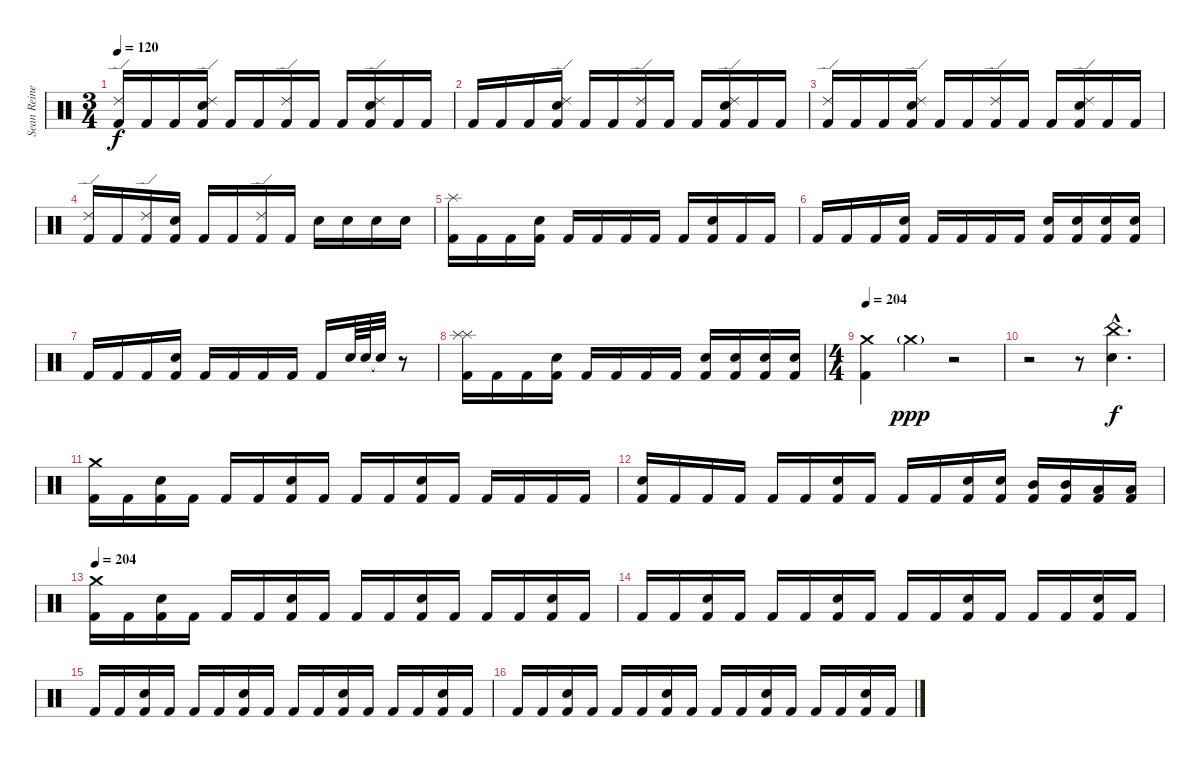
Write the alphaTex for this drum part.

\track ("Sean Reinert" "Sean Reine") {instrument percussion}
\staff {score}
\articulation defaults
\ts (3 4)
\tempo 120
\clef neutral
\ks c
("Ride (edge) 2" "Kick (hit) 2").16{dy f} "Kick (hit) 2".16 "Kick (hit) 2".16 ("Ride (edge) 2" "Snare (hit) 2" "Kick (hit) 2").16 "Kick (hit) 2".16 "Kick (hit) 2".16 ("Ride (edge) 2" "Kick (hit) 2").16 "Kick (hit) 2".16 "Kick (hit) 2".16 ("Ride (edge) 2" "Snare (hit) 2" "Kick (hit) 2").16 "Kick (hit) 2".16 "Kick (hit) 2".16 |
"Kick (hit) 2".16 "Kick (hit) 2".16 "Kick (hit) 2".16 ("Ride (edge) 2" "Snare (hit) 2" "Kick (hit) 2").16 "Kick (hit) 2".16 "Kick (hit) 2".16 ("Ride (edge) 2" "Kick (hit) 2").16 "Kick (hit) 2".16 "Kick (hit) 2".16 ("Ride (edge) 2" "Snare (hit) 2" "Kick (hit) 2").16 "Kick (hit) 2".16 "Kick (hit) 2".16 |
("Ride (edge) 2" "Kick (hit) 2").16 "Kick (hit) 2".16 "Kick (hit) 2".16 ("Ride (edge) 2" "Snare (hit) 2" "Kick (hit) 2").16 "Kick (hit) 2".16 "Kick (hit) 2".16 ("Ride (edge) 2" "Kick (hit) 2").16 "Kick (hit) 2".16 "Kick (hit) 2".16 ("Ride (edge) 2" "Snare (hit) 2" "Kick (hit) 2").16 "Kick (hit) 2".16 "Kick (hit) 2".16 |
("Ride (edge) 2" "Kick (hit) 2").16 "Kick (hit) 2".16 ("Ride (edge) 2" "Kick (hit) 2").16 ("Snare (hit) 2" "Kick (hit) 2").16 "Kick (hit) 2".16 "Kick (hit) 2".16 ("Ride (edge) 2" "Kick (hit) 2").16 "Kick (hit) 2".16 "Snare (hit) 2".16 "Snare (hit) 2".16 "Snare (hit) 2".16 "Snare (hit) 2".16 |
("Splash (hit)" "Kick (hit) 2").16 "Kick (hit) 2".16 "Kick (hit) 2".16 ("Snare (hit) 2" "Kick (hit) 2").16 "Kick (hit) 2".16 "Kick (hit) 2".16 "Kick (hit) 2".16 "Kick (hit) 2".16 "Kick (hit) 2".16 ("Snare (hit) 2" "Kick (hit) 2").16 "Kick (hit) 2".16 "Kick (hit) 2".16 |
"Kick (hit) 2".16 "Kick (hit) 2".16 "Kick (hit) 2".16 ("Snare (hit) 2" "Kick (hit) 2").16 "Kick (hit) 2".16 "Kick (hit) 2".16 "Kick (hit) 2".16 "Kick (hit) 2".16 ("Snare (hit) 2" "Kick (hit) 2").16 ("Snare (hit) 2" "Kick (hit) 2").16 ("Snare (hit) 2" "Kick (hit) 2").16 ("Snare (hit) 2" "Kick (hit) 2").16 |
"Kick (hit) 2".16 "Kick (hit) 2".16 "Kick (hit) 2".16 ("Snare (hit) 2" "Kick (hit) 2").16 "Kick (hit) 2".16 "Kick (hit) 2".16 "Kick (hit) 2".16 "Kick (hit) 2".16 "Kick (hit) 2".16 "Snare (hit) 2".64 "Snare (hit) 2".64 "Snare (hit)"{t}.32 r.8 |
("Splash (hit)" "Splash (hit)" "Kick (hit) 2").16 "Kick (hit) 2".16 "Kick (hit) 2".16 ("Snare (hit) 2" "Kick (hit) 2").16 "Kick (hit) 2".16 "Kick (hit) 2".16 "Kick (hit) 2".16 "Kick (hit) 2".16 ("Snare (hit) 2" "Kick (hit) 2").16 ("Snare (hit) 2" "Kick (hit) 2").16 ("Snare (hit) 2" "Kick (hit) 2").16 ("Snare (hit) 2" "Kick (hit) 2").16 |
\ts (4 4)
\tempo 204
("Crash medium (hit)" "Kick (hit) 2").4 "Crash medium (hit)"{g}.4{dy ppp} r.2 |
r.2 r.8 ("China (hit)"{hac} "Snare (hit) 2"{hac}).4{d dy f} |
("Crash medium (hit)" "Kick (hit) 2").16 "Kick (hit) 2".16 ("Snare (hit) 2" "Kick (hit) 2").16 "Kick (hit) 2".16 "Kick (hit) 2".16 "Kick (hit) 2".16 ("Snare (hit) 2" "Kick (hit) 2").16 "Kick (hit) 2".16 "Kick (hit) 2".16 "Kick (hit) 2".16 ("Snare (hit) 2" "Kick (hit) 2").16 "Kick (hit) 2".16 "Kick (hit) 2".16 "Kick (hit) 2".16 "Kick (hit) 2".16 "Kick (hit) 2".16 |
("Snare (hit) 2" "Kick (hit) 2").16 "Kick (hit) 2".16 "Kick (hit) 2".16 "Kick (hit) 2".16 "Kick (hit) 2".16 "Kick (hit) 2".16 ("Snare (hit) 2" "Kick (hit) 2").16 "Kick (hit) 2".16 "Kick (hit) 2".16 "Kick (hit) 2".16 ("Snare (hit) 2" "Kick (hit) 2").16 ("Snare (hit) 2" "Kick (hit) 2").16 ("Mid Tom (hit)" "Kick (hit) 2").16 ("Mid Tom (hit)" "Kick (hit) 2").16 ("Low Tom (hit)" "Kick (hit) 2").16 ("Low Tom (hit)" "Kick (hit) 2").16 |
\tempo 204
("Crash medium (hit)" "Kick (hit) 2").16 "Kick (hit) 2".16 ("Snare (hit) 2" "Kick (hit) 2").16 "Kick (hit) 2".16 "Kick (hit) 2".16 "Kick (hit) 2".16 ("Snare (hit) 2" "Kick (hit) 2").16 "Kick (hit) 2".16 "Kick (hit) 2".16 "Kick (hit) 2".16 ("Snare (hit) 2" "Kick (hit) 2").16 "Kick (hit) 2".16 "Kick (hit) 2".16 "Kick (hit) 2".16 ("Snare (hit) 2" "Kick (hit) 2").16 "Kick (hit) 2".16 |
"Kick (hit) 2".16 "Kick (hit) 2".16 ("Snare (hit) 2" "Kick (hit) 2").16 "Kick (hit) 2".16 "Kick (hit) 2".16 "Kick (hit) 2".16 ("Snare (hit) 2" "Kick (hit) 2").16 "Kick (hit) 2".16 "Kick (hit) 2".16 "Kick (hit) 2".16 ("Snare (hit) 2" "Kick (hit) 2").16 "Kick (hit) 2".16 "Kick (hit) 2".16 "Kick (hit) 2".16 ("Snare (hit) 2" "Kick (hit) 2").16 "Kick (hit) 2".16 |
"Kick (hit) 2".16 "Kick (hit) 2".16 ("Snare (hit) 2" "Kick (hit) 2").16 "Kick (hit) 2".16 "Kick (hit) 2".16 "Kick (hit) 2".16 ("Snare (hit) 2" "Kick (hit) 2").16 "Kick (hit) 2".16 "Kick (hit) 2".16 "Kick (hit) 2".16 ("Snare (hit) 2" "Kick (hit) 2").16 "Kick (hit) 2".16 "Kick (hit) 2".16 "Kick (hit) 2".16 ("Snare (hit) 2" "Kick (hit) 2").16 "Kick (hit) 2".16 |
"Kick (hit) 2".16 "Kick (hit) 2".16 ("Snare (hit) 2" "Kick (hit) 2").16 "Kick (hit) 2".16 "Kick (hit) 2".16 "Kick (hit) 2".16 ("Snare (hit) 2" "Kick (hit) 2").16 "Kick (hit) 2".16 "Kick (hit) 2".16 "Kick (hit) 2".16 ("Snare (hit) 2" "Kick (hit) 2").16 "Kick (hit) 2".16 "Kick (hit) 2".16 "Kick (hit) 2".16 ("Snare (hit) 2" "Kick (hit) 2").16 "Kick (hit) 2".16
